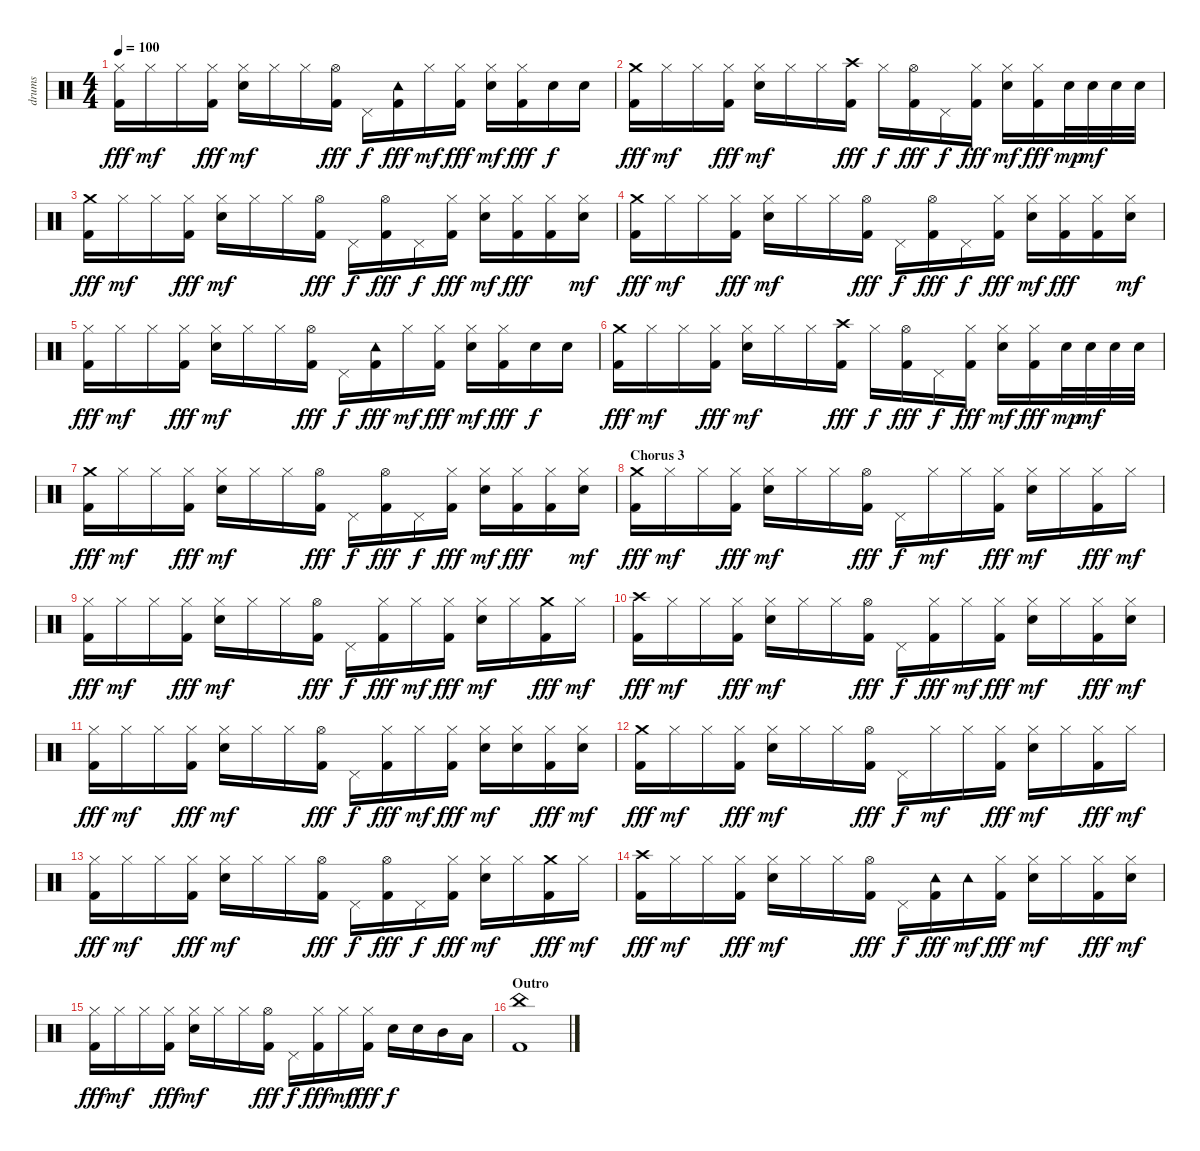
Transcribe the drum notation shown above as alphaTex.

\track ("drums" "drums") {instrument percussion}
\staff {score}
\articulation defaults
\ts (4 4)
\tempo 100
\clef neutral
\ks c
("Hi-Hat (closed)" "Kick (hit) 2").16{dy fff} "Hi-Hat (closed)".16{dy mf} "Hi-Hat (closed)".16 ("Hi-Hat (closed)" "Kick (hit) 2").16{dy fff} ("Hi-Hat (closed)" "Electric Snare (hit)").16{dy mf} "Hi-Hat (closed)".16 "Hi-Hat (closed)".16 ("Hi-Hat (open)" "Kick (hit) 2").16{dy fff} "Pedal Hi-Hat (hit)".16{dy f} ("Tambourine (hit)" "Kick (hit) 2").16{dy fff} "Hi-Hat (closed)".16{dy mf} ("Hi-Hat (closed)" "Kick (hit) 2").16{dy fff} ("Hi-Hat (closed)" "Electric Snare (hit)").16{dy mf} ("Hi-Hat (closed)" "Kick (hit) 2").16{dy fff} "Electric Snare (hit)".16{dy f} "Electric Snare (hit)".16 |
("Crash medium (hit)" "Kick (hit) 2").16{dy fff} "Hi-Hat (closed)".16{dy mf} "Hi-Hat (closed)".16 ("Hi-Hat (closed)" "Kick (hit) 2").16{dy fff} ("Hi-Hat (closed)" "Electric Snare (hit)").16{dy mf} "Hi-Hat (closed)".16 "Hi-Hat (closed)".16 ("Crash high (hit)" "Kick (hit) 2").16{dy fff} "Hi-Hat (closed)".16{dy f} ("Hi-Hat (open)" "Kick (hit) 2").16{dy fff} "Pedal Hi-Hat (hit)".16{dy f} ("Hi-Hat (closed)" "Kick (hit) 2").16{dy fff} ("Hi-Hat (closed)" "Electric Snare (hit)").16{dy mf} ("Hi-Hat (closed)" "Kick (hit) 2").16{dy fff} "Electric Snare (hit)".32{dy mp} "Electric Snare (hit)".32{dy mf} "Electric Snare (hit)".32 "Electric Snare (hit)".32 |
("Crash medium (hit)" "Kick (hit) 2").16{dy fff} "Hi-Hat (closed)".16{dy mf} "Hi-Hat (closed)".16 ("Hi-Hat (closed)" "Kick (hit) 2").16{dy fff} ("Hi-Hat (closed)" "Electric Snare (hit)").16{dy mf} "Hi-Hat (closed)".16 "Hi-Hat (closed)".16 ("Hi-Hat (open)" "Kick (hit) 2").16{dy fff} "Pedal Hi-Hat (hit)".16{dy f} ("Hi-Hat (open)" "Kick (hit) 2").16{dy fff} "Pedal Hi-Hat (hit)".16{dy f} ("Hi-Hat (closed)" "Kick (hit) 2").16{dy fff} ("Hi-Hat (closed)" "Electric Snare (hit)").16{dy mf} ("Hi-Hat (closed)" "Kick (hit) 2").16{dy fff} ("Hi-Hat (closed)" "Kick (hit) 2").16 ("Hi-Hat (closed)" "Electric Snare (hit)").16{dy mf} |
("Crash medium (hit)" "Kick (hit) 2").16{dy fff} "Hi-Hat (closed)".16{dy mf} "Hi-Hat (closed)".16 ("Hi-Hat (closed)" "Kick (hit) 2").16{dy fff} ("Hi-Hat (closed)" "Electric Snare (hit)").16{dy mf} "Hi-Hat (closed)".16 "Hi-Hat (closed)".16 ("Hi-Hat (open)" "Kick (hit) 2").16{dy fff} "Pedal Hi-Hat (hit)".16{dy f} ("Hi-Hat (open)" "Kick (hit) 2").16{dy fff} "Pedal Hi-Hat (hit)".16{dy f} ("Hi-Hat (closed)" "Kick (hit) 2").16{dy fff} ("Hi-Hat (closed)" "Electric Snare (hit)").16{dy mf} ("Hi-Hat (closed)" "Kick (hit) 2").16{dy fff} ("Hi-Hat (closed)" "Kick (hit) 2").16 ("Hi-Hat (closed)" "Electric Snare (hit)").16{dy mf} |
("Hi-Hat (closed)" "Kick (hit) 2").16{dy fff} "Hi-Hat (closed)".16{dy mf} "Hi-Hat (closed)".16 ("Hi-Hat (closed)" "Kick (hit) 2").16{dy fff} ("Hi-Hat (closed)" "Electric Snare (hit)").16{dy mf} "Hi-Hat (closed)".16 "Hi-Hat (closed)".16 ("Hi-Hat (open)" "Kick (hit) 2").16{dy fff} "Pedal Hi-Hat (hit)".16{dy f} ("Tambourine (hit)" "Kick (hit) 2").16{dy fff} "Hi-Hat (closed)".16{dy mf} ("Hi-Hat (closed)" "Kick (hit) 2").16{dy fff} ("Hi-Hat (closed)" "Electric Snare (hit)").16{dy mf} ("Hi-Hat (closed)" "Kick (hit) 2").16{dy fff} "Electric Snare (hit)".16{dy f} "Electric Snare (hit)".16 |
("Crash medium (hit)" "Kick (hit) 2").16{dy fff} "Hi-Hat (closed)".16{dy mf} "Hi-Hat (closed)".16 ("Hi-Hat (closed)" "Kick (hit) 2").16{dy fff} ("Hi-Hat (closed)" "Electric Snare (hit)").16{dy mf} "Hi-Hat (closed)".16 "Hi-Hat (closed)".16 ("Crash high (hit)" "Kick (hit) 2").16{dy fff} "Hi-Hat (closed)".16{dy f} ("Hi-Hat (open)" "Kick (hit) 2").16{dy fff} "Pedal Hi-Hat (hit)".16{dy f} ("Hi-Hat (closed)" "Kick (hit) 2").16{dy fff} ("Hi-Hat (closed)" "Electric Snare (hit)").16{dy mf} ("Hi-Hat (closed)" "Kick (hit) 2").16{dy fff} "Electric Snare (hit)".32{dy mp} "Electric Snare (hit)".32{dy mf} "Electric Snare (hit)".32 "Electric Snare (hit)".32 |
("Crash medium (hit)" "Kick (hit) 2").16{dy fff} "Hi-Hat (closed)".16{dy mf} "Hi-Hat (closed)".16 ("Hi-Hat (closed)" "Kick (hit) 2").16{dy fff} ("Hi-Hat (closed)" "Electric Snare (hit)").16{dy mf} "Hi-Hat (closed)".16 "Hi-Hat (closed)".16 ("Hi-Hat (open)" "Kick (hit) 2").16{dy fff} "Pedal Hi-Hat (hit)".16{dy f} ("Hi-Hat (open)" "Kick (hit) 2").16{dy fff} "Pedal Hi-Hat (hit)".16{dy f} ("Hi-Hat (closed)" "Kick (hit) 2").16{dy fff} ("Hi-Hat (closed)" "Electric Snare (hit)").16{dy mf} ("Hi-Hat (closed)" "Kick (hit) 2").16{dy fff} ("Hi-Hat (closed)" "Kick (hit) 2").16 ("Hi-Hat (closed)" "Electric Snare (hit)").16{dy mf} |
\section ("" "Chorus 3")
("Crash medium (hit)" "Kick (hit) 2").16{dy fff} "Hi-Hat (closed)".16{dy mf} "Hi-Hat (closed)".16 ("Hi-Hat (closed)" "Kick (hit) 2").16{dy fff} ("Hi-Hat (closed)" "Electric Snare (hit)").16{dy mf} "Hi-Hat (closed)".16 "Hi-Hat (closed)".16 ("Hi-Hat (open)" "Kick (hit) 2").16{dy fff} "Pedal Hi-Hat (hit)".16{dy f} "Hi-Hat (closed)".16{dy mf} "Hi-Hat (closed)".16 ("Hi-Hat (closed)" "Kick (hit) 2").16{dy fff} ("Hi-Hat (closed)" "Electric Snare (hit)").16{dy mf} "Hi-Hat (closed)".16 ("Hi-Hat (closed)" "Kick (hit) 2").16{dy fff} "Hi-Hat (closed)".16{dy mf} |
("Hi-Hat (closed)" "Kick (hit) 2").16{dy fff} "Hi-Hat (closed)".16{dy mf} "Hi-Hat (closed)".16 ("Hi-Hat (closed)" "Kick (hit) 2").16{dy fff} ("Hi-Hat (closed)" "Electric Snare (hit)").16{dy mf} "Hi-Hat (closed)".16 "Hi-Hat (closed)".16 ("Hi-Hat (open)" "Kick (hit) 2").16{dy fff} "Pedal Hi-Hat (hit)".16{dy f} ("Hi-Hat (closed)" "Kick (hit) 2").16{dy fff} "Hi-Hat (closed)".16{dy mf} ("Hi-Hat (closed)" "Kick (hit) 2").16{dy fff} ("Hi-Hat (closed)" "Electric Snare (hit)").16{dy mf} "Hi-Hat (closed)".16 ("Crash medium (hit)" "Kick (hit) 2").16{dy fff} "Hi-Hat (closed)".16{dy mf} |
("Crash high (hit)" "Kick (hit) 2").16{dy fff} "Hi-Hat (closed)".16{dy mf} "Hi-Hat (closed)".16 ("Hi-Hat (closed)" "Kick (hit) 2").16{dy fff} ("Hi-Hat (closed)" "Electric Snare (hit)").16{dy mf} "Hi-Hat (closed)".16 "Hi-Hat (closed)".16 ("Hi-Hat (open)" "Kick (hit) 2").16{dy fff} "Pedal Hi-Hat (hit)".16{dy f} ("Hi-Hat (closed)" "Kick (hit) 2").16{dy fff} "Hi-Hat (closed)".16{dy mf} ("Hi-Hat (closed)" "Kick (hit) 2").16{dy fff} ("Hi-Hat (closed)" "Electric Snare (hit)").16{dy mf} "Hi-Hat (closed)".16 ("Hi-Hat (closed)" "Kick (hit) 2").16{dy fff} ("Hi-Hat (closed)" "Electric Snare (hit)").16{dy mf} |
("Hi-Hat (closed)" "Kick (hit) 2").16{dy fff} "Hi-Hat (closed)".16{dy mf} "Hi-Hat (closed)".16 ("Hi-Hat (closed)" "Kick (hit) 2").16{dy fff} ("Hi-Hat (closed)" "Electric Snare (hit)").16{dy mf} "Hi-Hat (closed)".16 "Hi-Hat (closed)".16 ("Hi-Hat (open)" "Kick (hit) 2").16{dy fff} "Pedal Hi-Hat (hit)".16{dy f} ("Hi-Hat (closed)" "Kick (hit) 2").16{dy fff} "Hi-Hat (closed)".16{dy mf} ("Hi-Hat (closed)" "Kick (hit) 2").16{dy fff} ("Hi-Hat (closed)" "Electric Snare (hit)").16{dy mf} ("Hi-Hat (closed)" "Electric Snare (hit)").16 ("Hi-Hat (closed)" "Kick (hit) 2").16{dy fff} ("Hi-Hat (closed)" "Electric Snare (hit)").16{dy mf} |
("Crash medium (hit)" "Kick (hit) 2").16{dy fff} "Hi-Hat (closed)".16{dy mf} "Hi-Hat (closed)".16 ("Hi-Hat (closed)" "Kick (hit) 2").16{dy fff} ("Hi-Hat (closed)" "Electric Snare (hit)").16{dy mf} "Hi-Hat (closed)".16 "Hi-Hat (closed)".16 ("Hi-Hat (open)" "Kick (hit) 2").16{dy fff} "Pedal Hi-Hat (hit)".16{dy f} "Hi-Hat (closed)".16{dy mf} "Hi-Hat (closed)".16 ("Hi-Hat (closed)" "Kick (hit) 2").16{dy fff} ("Hi-Hat (closed)" "Electric Snare (hit)").16{dy mf} "Hi-Hat (closed)".16 ("Hi-Hat (closed)" "Kick (hit) 2").16{dy fff} "Hi-Hat (closed)".16{dy mf} |
("Hi-Hat (closed)" "Kick (hit) 2").16{dy fff} "Hi-Hat (closed)".16{dy mf} "Hi-Hat (closed)".16 ("Hi-Hat (closed)" "Kick (hit) 2").16{dy fff} ("Hi-Hat (closed)" "Electric Snare (hit)").16{dy mf} "Hi-Hat (closed)".16 "Hi-Hat (closed)".16 ("Hi-Hat (open)" "Kick (hit) 2").16{dy fff} "Pedal Hi-Hat (hit)".16{dy f} ("Hi-Hat (open)" "Kick (hit) 2").16{dy fff} "Pedal Hi-Hat (hit)".16{dy f} ("Hi-Hat (closed)" "Kick (hit) 2").16{dy fff} ("Hi-Hat (closed)" "Electric Snare (hit)").16{dy mf} "Hi-Hat (closed)".16 ("Crash medium (hit)" "Kick (hit) 2").16{dy fff} "Hi-Hat (closed)".16{dy mf} |
("Crash high (hit)" "Kick (hit) 2").16{dy fff} "Hi-Hat (closed)".16{dy mf} "Hi-Hat (closed)".16 ("Hi-Hat (closed)" "Kick (hit) 2").16{dy fff} ("Hi-Hat (closed)" "Electric Snare (hit)").16{dy mf} "Hi-Hat (closed)".16 "Hi-Hat (closed)".16 ("Hi-Hat (open)" "Kick (hit) 2").16{dy fff} "Pedal Hi-Hat (hit)".16{dy f} ("Tambourine (hit)" "Kick (hit) 2").16{dy fff} "Tambourine (hit)".16{dy mf} ("Hi-Hat (closed)" "Kick (hit) 2").16{dy fff} ("Hi-Hat (closed)" "Electric Snare (hit)").16{dy mf} "Hi-Hat (closed)".16 ("Hi-Hat (closed)" "Kick (hit) 2").16{dy fff} ("Hi-Hat (closed)" "Electric Snare (hit)").16{dy mf} |
("Hi-Hat (closed)" "Kick (hit) 2").16{dy fff} "Hi-Hat (closed)".16{dy mf} "Hi-Hat (closed)".16 ("Hi-Hat (closed)" "Kick (hit) 2").16{dy fff} ("Hi-Hat (closed)" "Electric Snare (hit)").16{dy mf} "Hi-Hat (closed)".16 "Hi-Hat (closed)".16 ("Hi-Hat (open)" "Kick (hit) 2").16{dy fff} "Pedal Hi-Hat (hit)".16{dy f} ("Hi-Hat (closed)" "Kick (hit) 2").16{dy fff} "Hi-Hat (closed)".16{dy mf} ("Hi-Hat (closed)" "Kick (hit) 2").16{dy fff} "Electric Snare (hit)".16{dy f} "Electric Snare (hit)".16 "Mid Tom (hit)".16 "Low Tom (hit)".16 |
\section ("" "Outro")
("China (hit)" "Kick (hit) 2").1
